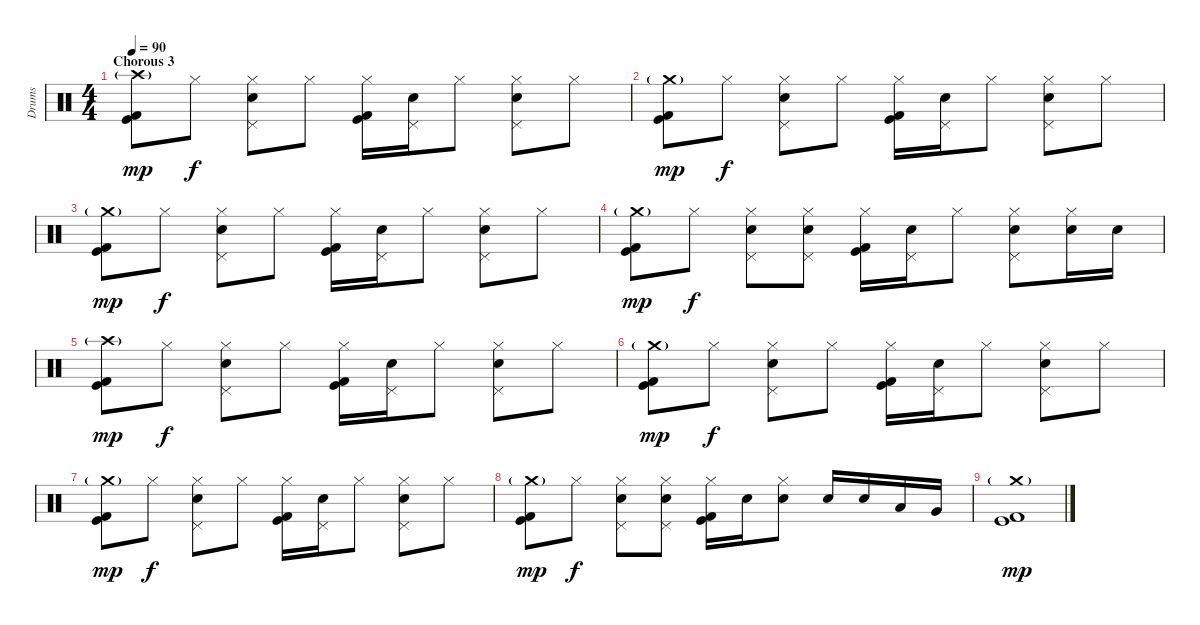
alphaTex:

\track ("Drums" "Drums") {instrument percussion}
\staff {score}
\articulation defaults
\ts (4 4)
\section ("" "Chorous 3")
\tempo 90
\clef neutral
\ks c
("Crash high (hit)"{g} "Kick (hit)" "Kick (hit) 2").8{dy mp} "Hi-Hat (closed)".8{dy f} ("Hi-Hat (closed)" "Pedal Hi-Hat (hit)" "Electric Snare (hit)").8 "Hi-Hat (closed)".8 ("Hi-Hat (closed)" "Kick (hit)" "Kick (hit) 2").16 ("Pedal Hi-Hat (hit)" "Electric Snare (hit)").16 "Hi-Hat (closed)".8 ("Hi-Hat (closed)" "Pedal Hi-Hat (hit)" "Electric Snare (hit)").8 "Hi-Hat (closed)".8 |
("Crash medium (hit)"{g} "Kick (hit)" "Kick (hit) 2").8{dy mp} "Hi-Hat (closed)".8{dy f} ("Hi-Hat (closed)" "Pedal Hi-Hat (hit)" "Electric Snare (hit)").8 "Hi-Hat (closed)".8 ("Hi-Hat (closed)" "Kick (hit)" "Kick (hit) 2").16 ("Pedal Hi-Hat (hit)" "Electric Snare (hit)").16 "Hi-Hat (closed)".8 ("Hi-Hat (closed)" "Pedal Hi-Hat (hit)" "Electric Snare (hit)").8 "Hi-Hat (closed)".8 |
("Crash medium (hit)"{g} "Kick (hit)" "Kick (hit) 2").8{dy mp} "Hi-Hat (closed)".8{dy f} ("Hi-Hat (closed)" "Pedal Hi-Hat (hit)" "Electric Snare (hit)").8 "Hi-Hat (closed)".8 ("Hi-Hat (closed)" "Kick (hit)" "Kick (hit) 2").16 ("Pedal Hi-Hat (hit)" "Electric Snare (hit)").16 "Hi-Hat (closed)".8 ("Hi-Hat (closed)" "Pedal Hi-Hat (hit)" "Electric Snare (hit)").8 "Hi-Hat (closed)".8 |
("Crash medium (hit)"{g} "Kick (hit)" "Kick (hit) 2").8{dy mp} "Hi-Hat (closed)".8{dy f} ("Hi-Hat (closed)" "Pedal Hi-Hat (hit)" "Electric Snare (hit)").8 ("Hi-Hat (closed)" "Pedal Hi-Hat (hit)" "Electric Snare (hit)").8 ("Hi-Hat (closed)" "Kick (hit)" "Kick (hit) 2").16 ("Pedal Hi-Hat (hit)" "Electric Snare (hit)").16 "Hi-Hat (closed)".8 ("Hi-Hat (closed)" "Pedal Hi-Hat (hit)" "Electric Snare (hit)").8 ("Hi-Hat (closed)" "Electric Snare (hit)").16 "Electric Snare (hit)".16 |
("Crash high (hit)"{g} "Kick (hit)" "Kick (hit) 2").8{dy mp} "Hi-Hat (closed)".8{dy f} ("Hi-Hat (closed)" "Pedal Hi-Hat (hit)" "Electric Snare (hit)").8 "Hi-Hat (closed)".8 ("Hi-Hat (closed)" "Kick (hit)" "Kick (hit) 2").16 ("Pedal Hi-Hat (hit)" "Electric Snare (hit)").16 "Hi-Hat (closed)".8 ("Hi-Hat (closed)" "Pedal Hi-Hat (hit)" "Electric Snare (hit)").8 "Hi-Hat (closed)".8 |
("Crash medium (hit)"{g} "Kick (hit)" "Kick (hit) 2").8{dy mp} "Hi-Hat (closed)".8{dy f} ("Hi-Hat (closed)" "Pedal Hi-Hat (hit)" "Electric Snare (hit)").8 "Hi-Hat (closed)".8 ("Hi-Hat (closed)" "Kick (hit)" "Kick (hit) 2").16 ("Pedal Hi-Hat (hit)" "Electric Snare (hit)").16 "Hi-Hat (closed)".8 ("Hi-Hat (closed)" "Pedal Hi-Hat (hit)" "Electric Snare (hit)").8 "Hi-Hat (closed)".8 |
("Crash medium (hit)"{g} "Kick (hit)" "Kick (hit) 2").8{dy mp} "Hi-Hat (closed)".8{dy f} ("Hi-Hat (closed)" "Pedal Hi-Hat (hit)" "Electric Snare (hit)").8 "Hi-Hat (closed)".8 ("Hi-Hat (closed)" "Kick (hit)" "Kick (hit) 2").16 ("Pedal Hi-Hat (hit)" "Electric Snare (hit)").16 "Hi-Hat (closed)".8 ("Hi-Hat (closed)" "Pedal Hi-Hat (hit)" "Electric Snare (hit)").8 "Hi-Hat (closed)".8 |
("Crash medium (hit)"{g} "Kick (hit)" "Kick (hit) 2").8{dy mp} "Hi-Hat (closed)".8{dy f} ("Hi-Hat (closed)" "Pedal Hi-Hat (hit)" "Electric Snare (hit)").8 ("Hi-Hat (closed)" "Pedal Hi-Hat (hit)" "Electric Snare (hit)").8 ("Hi-Hat (closed)" "Kick (hit)" "Kick (hit) 2").16 "Electric Snare (hit)".16 ("Hi-Hat (closed)" "Electric Snare (hit)").8 "Electric Snare (hit)".16 "Electric Snare (hit)".16 "Low Tom (hit)".16 "Very Low Tom (hit)".16 |
("Crash medium (hit)"{g} "Kick (hit)" "Kick (hit) 2").1{dy mp}
